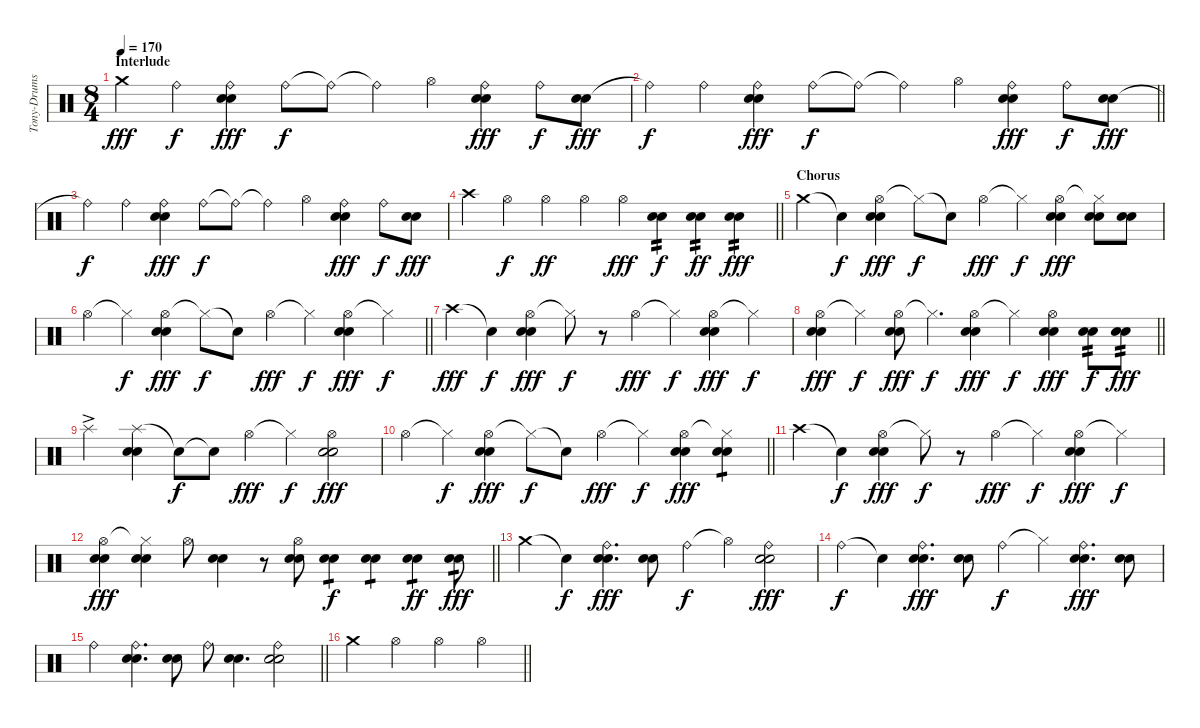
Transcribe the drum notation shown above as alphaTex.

\track ("Tony-Drums" "Tony-Drums") {instrument percussion}
\staff {score}
\articulation defaults
\ts (8 4)
\section ("" "Interlude")
\tempo 170
\clef neutral
\ks c "Crash medium (hit)".4{dy fff} "Ride (bell)".4{dy f}
("Ride (bell)" "Snare (hit) 2" "Electric Snare (hit)").4{dy fff} "Ride (bell)".8{dy f} "Ride (bell)"{t}.8 "Ride (bell)"{t}.4 "Hi-Hat (open)".4 ("Ride (bell)" "Snare (hit) 2" "Electric Snare (hit)").4{dy fff} "Ride (bell)".8{dy f} ("Snare (hit) 2" "Electric Snare (hit)").8{dy fff} |
\barLineRight lightlight "Ride (bell)"{t}.4{dy f} "Ride (bell)".4
("Ride (bell)" "Snare (hit) 2" "Electric Snare (hit)").4{dy fff} "Ride (bell)".8{dy f} "Ride (bell)"{t}.8 "Ride (bell)"{t}.4 "Hi-Hat (open)".4 ("Ride (bell)" "Snare (hit) 2" "Electric Snare (hit)").4{dy fff} "Ride (bell)".8{dy f} ("Snare (hit) 2" "Electric Snare (hit)").8{dy fff} |
"Ride (bell)"{t}.4{dy f} "Ride (bell)".4 ("Ride (bell)" "Snare (hit) 2" "Electric Snare (hit)").4{dy fff} "Ride (bell)".8{dy f} "Ride (bell)"{t}.8 "Ride (bell)"{t}.4 "Hi-Hat (open)".4 ("Ride (bell)" "Snare (hit) 2" "Electric Snare (hit)").4{dy fff} "Ride (bell)".8{dy f} ("Snare (hit) 2" "Electric Snare (hit)").8{dy fff} |
\barLineRight lightlight "Crash high (hit)".4 "Hi-Hat (open)".4{dy f} "Hi-Hat (open)".4{dy ff} "Hi-Hat (open)".4 "Hi-Hat (open)".4{dy fff}
("Snare (hit) 2" "Electric Snare (hit)").4{tp 2 dy f} ("Snare (hit) 2" "Electric Snare (hit)").4{tp 2 dy ff} ("Snare (hit) 2" "Electric Snare (hit)").4{tp 2 dy fff} |
\section ("" "Chorus")
"Crash medium (hit)".4 "Snare (hit)"{t}.4{dy f} ("Hi-Hat (open)" "Snare (hit) 2" "Electric Snare (hit)").4{dy fff} "Hi-Hat (closed)"{t}.8{dy f} "Snare (hit)"{t}.8 "Hi-Hat (open)".4{dy fff} "Hi-Hat (closed)"{t}.4{dy f} ("Hi-Hat (open)" "Snare (hit) 2" "Electric Snare (hit)").4{dy fff} ("Hi-Hat (closed)"{t} "Snare (hit) 2" "Electric Snare (hit)").8 ("Snare (hit) 2" "Electric Snare (hit)").8 |
\barLineRight lightlight "Hi-Hat (open)".4 "Hi-Hat (closed)"{t}.4{dy f}
("Hi-Hat (open)" "Snare (hit) 2" "Electric Snare (hit)").4{dy fff} "Hi-Hat (closed)"{t}.8{dy f} "Snare (hit)"{t}.8 "Hi-Hat (open)".4{dy fff} "Hi-Hat (closed)"{t}.4{dy f} ("Hi-Hat (open)" "Snare (hit) 2" "Electric Snare (hit)").4{dy fff} "Hi-Hat (closed)"{t}.4{dy f} |
"Crash high (hit)".4{dy fff} "Snare (hit)"{t}.4{dy f} ("Hi-Hat (open)" "Snare (hit) 2" "Electric Snare (hit)").4{dy fff} "Hi-Hat (closed)"{t}.8{dy f} r.8 "Hi-Hat (open)".4{dy fff} "Hi-Hat (closed)"{t}.4{dy f} ("Hi-Hat (open)" "Snare (hit) 2" "Electric Snare (hit)").4{dy fff} "Hi-Hat (closed)"{t}.4{dy f} |
\barLineRight lightlight
("Hi-Hat (open)" "Snare (hit) 2" "Electric Snare (hit)").4{dy fff} "Hi-Hat (closed)"{t}.4{dy f} ("Hi-Hat (open)" "Snare (hit) 2" "Electric Snare (hit)").8{dy fff} "Hi-Hat (closed)"{t}.4{d dy f} ("Hi-Hat (open)" "Snare (hit) 2" "Electric Snare (hit)").4{dy fff} "Hi-Hat (closed)"{t}.4{dy f} ("Hi-Hat (open)" "Snare (hit) 2" "Electric Snare (hit)").4{dy fff} ("Snare (hit) 2" "Electric Snare (hit)").8{tp 2 dy f} ("Snare (hit) 2" "Electric Snare (hit)").8{tp 2 dy fff} |
"Splash (hit)"{ac}.2 ("Splash (hit)" "Snare (hit) 2" "Electric Snare (hit)").4 "Snare (hit)"{t}.8{dy f} "Snare (hit)"{t}.8 "Hi-Hat (open)".4{dy fff} "Hi-Hat (closed)"{t}.4{dy f} ("Hi-Hat (open)" "Snare (hit) 2" "Electric Snare (hit)").2{dy fff} |
\barLineRight lightlight "Hi-Hat (open)".4 "Hi-Hat (closed)"{t}.4{dy f}
("Hi-Hat (open)" "Snare (hit) 2" "Electric Snare (hit)").4{dy fff} "Hi-Hat (closed)"{t}.8{dy f} "Snare (hit)"{t}.8 "Hi-Hat (open)".4{dy fff} "Hi-Hat (closed)"{t}.4{dy f} ("Hi-Hat (open)" "Snare (hit) 2" "Electric Snare (hit)").4{dy fff} ("Hi-Hat (closed)"{t} "Snare (hit) 2" "Electric Snare (hit)").4{tp 1} |
"Crash high (hit)".4 "Snare (hit)"{t}.4{dy f} ("Hi-Hat (open)" "Snare (hit) 2" "Electric Snare (hit)").4{dy fff} "Hi-Hat (closed)"{t}.8{dy f} r.8 "Hi-Hat (open)".4{dy fff} "Hi-Hat (closed)"{t}.4{dy f} ("Hi-Hat (open)" "Snare (hit) 2" "Electric Snare (hit)").4{dy fff} "Hi-Hat (closed)"{t}.4{dy f} |
\barLineRight lightlight
("Hi-Hat (open)" "Snare (hit) 2" "Electric Snare (hit)").4{dy fff} ("Hi-Hat (closed)"{t} "Snare (hit) 2" "Electric Snare (hit)").4 "Hi-Hat (open)".8 ("Snare (hit) 2" "Electric Snare (hit)").4 r.8 ("Hi-Hat (open)" "Snare (hit) 2" "Electric Snare (hit)").8 ("Snare (hit) 2" "Electric Snare (hit)").4{tp 1 dy f} ("Snare (hit) 2" "Electric Snare (hit)").4{tp 1} ("Snare (hit) 2" "Electric Snare (hit)").4{tp 1 dy ff} ("Snare (hit) 2" "Electric Snare (hit)").8{tp 1 dy fff} |
"Crash medium (hit)".4 "Snare (hit)"{t}.4{dy f} ("Ride (bell)" "Snare (hit) 2" "Electric Snare (hit)").4{d dy fff} ("Snare (hit) 2" "Electric Snare (hit)").8 "Ride (bell)".4{dy f} "Hi-Hat (open)"{t}.4 ("Ride (bell)" "Snare (hit) 2" "Electric Snare (hit)").2{dy fff} |
"Ride (bell)".4{dy f} "Snare (hit)"{t}.4 ("Ride (bell)" "Snare (hit) 2" "Electric Snare (hit)").4{d dy fff} ("Snare (hit) 2" "Electric Snare (hit)").8 "Ride (bell)".4{dy f} "Hi-Hat (closed)"{t}.4 ("Ride (bell)" "Snare (hit) 2" "Electric Snare (hit)").4{d dy fff} ("Snare (hit) 2" "Electric Snare (hit)").8 |
\barLineRight lightlight "Ride (bell)".2
("Ride (bell)" "Snare (hit) 2" "Electric Snare (hit)").4{d} ("Snare (hit) 2" "Electric Snare (hit)").8 "Ride (bell)".8 ("Snare (hit) 2" "Electric Snare (hit)").4{d} ("Ride (bell)" "Snare (hit) 2" "Electric Snare (hit)").2 |
\barLineRight lightlight "Crash medium (hit)".2 "Hi-Hat (open)".2 "Hi-Hat (open)".2 "Hi-Hat (open)".2
